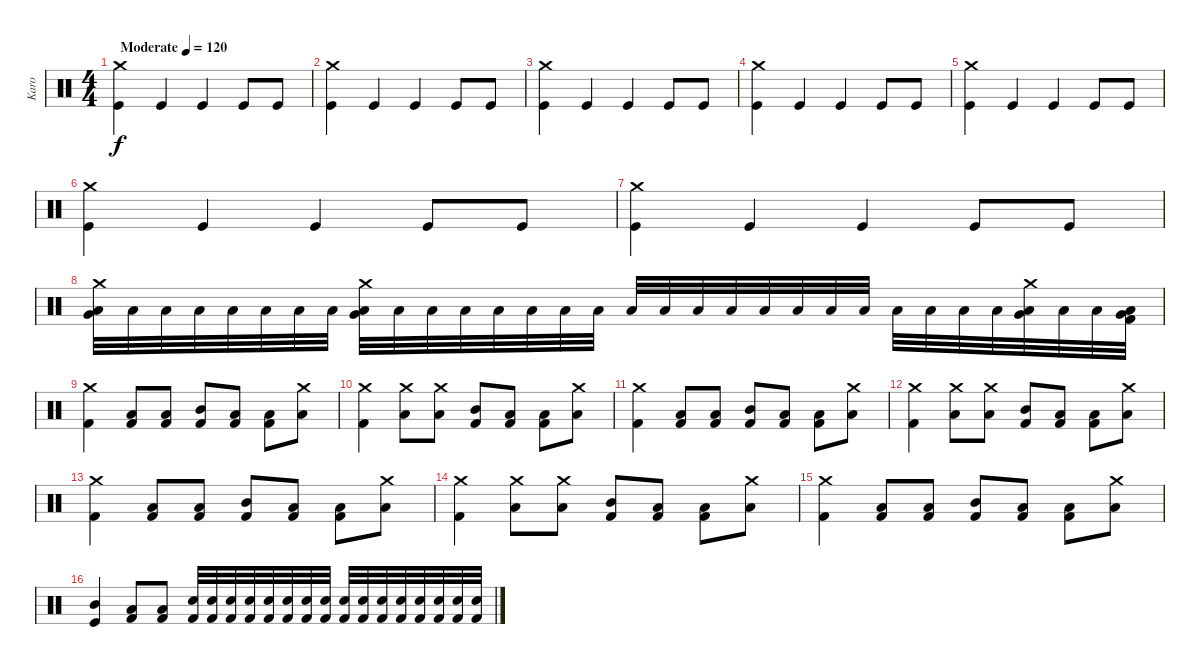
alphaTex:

\track ("Karo" "Karo") {instrument percussion}
\staff {score}
\articulation defaults
\ts (4 4)
\tempo (120 "Moderate")
\clef neutral
\ks c
("Crash medium (hit)" "Kick (hit)").4{dy f} "Kick (hit)".4 "Kick (hit)".4 "Kick (hit)".8 "Kick (hit)".8 |
("Crash medium (hit)" "Kick (hit)").4 "Kick (hit)".4 "Kick (hit)".4 "Kick (hit)".8 "Kick (hit)".8 |
("Crash medium (hit)" "Kick (hit)").4 "Kick (hit)".4 "Kick (hit)".4 "Kick (hit)".8 "Kick (hit)".8 |
("Crash medium (hit)" "Kick (hit)").4 "Kick (hit)".4 "Kick (hit)".4 "Kick (hit)".8 "Kick (hit)".8 |
("Crash medium (hit)" "Kick (hit)").4 "Kick (hit)".4 "Kick (hit)".4 "Kick (hit)".8 "Kick (hit)".8 |
("Crash medium (hit)" "Kick (hit)").4 "Kick (hit)".4 "Kick (hit)".4 "Kick (hit)".8 "Kick (hit)".8 |
("Crash medium (hit)" "Kick (hit)").4 "Kick (hit)".4 "Kick (hit)".4 "Kick (hit)".8 "Kick (hit)".8 |
("Crash medium (hit)" "Very Low Tom (hit)" "Low Tom (hit)").32 "Low Tom (hit)".32 "Low Tom (hit)".32 "Low Tom (hit)".32 "Low Tom (hit)".32 "Low Tom (hit)".32 "Low Tom (hit)".32 "Low Tom (hit)".32 ("Crash medium (hit)" "Very Low Tom (hit)" "Low Tom (hit)").32 "Low Tom (hit)".32 "Low Tom (hit)".32 "Low Tom (hit)".32 "Low Tom (hit)".32 "Low Tom (hit)".32 "Low Tom (hit)".32 "Low Tom (hit)".32 "Low Tom (hit)".32 "Low Tom (hit)".32 "Low Tom (hit)".32 "Low Tom (hit)".32 "Low Tom (hit)".32 "Low Tom (hit)".32 "Low Tom (hit)".32 "Low Tom (hit)".32 "Low Tom (hit)".32 "Low Tom (hit)".32 "Low Tom (hit)".32 "Low Tom (hit)".32 ("Very Low Tom (hit)" "Crash medium (hit)" "Low Tom (hit)").32 "Low Tom (hit)".32 "Low Tom (hit)".32 ("Very Low Tom (hit)" "Kick (hit) 2" "Low Tom (hit)").32 |
("Crash medium (hit)" "Kick (hit) 2").4 ("Kick (hit) 2" "Low Tom (hit)").8 ("Kick (hit) 2" "Low Tom (hit)").8 ("Kick (hit) 2" "Mid Tom (hit)").8 ("Kick (hit) 2" "Low Tom (hit)").8 ("Kick (hit) 2" "Low Tom (hit)").8 ("Crash medium (hit)" "Low Tom (hit)").8 |
("Crash medium (hit)" "Kick (hit) 2").4 ("Crash medium (hit)" "Low Tom (hit)").8 ("Crash medium (hit)" "Low Tom (hit)").8 ("Kick (hit) 2" "Mid Tom (hit)").8 ("Kick (hit) 2" "Low Tom (hit)").8 ("Kick (hit) 2" "Low Tom (hit)").8 ("Crash medium (hit)" "Low Tom (hit)").8 |
("Crash medium (hit)" "Kick (hit) 2").4 ("Kick (hit) 2" "Low Tom (hit)").8 ("Kick (hit) 2" "Low Tom (hit)").8 ("Kick (hit) 2" "Mid Tom (hit)").8 ("Kick (hit) 2" "Low Tom (hit)").8 ("Kick (hit) 2" "Low Tom (hit)").8 ("Crash medium (hit)" "Low Tom (hit)").8 |
("Crash medium (hit)" "Kick (hit) 2").4 ("Crash medium (hit)" "Low Tom (hit)").8 ("Crash medium (hit)" "Low Tom (hit)").8 ("Kick (hit) 2" "Mid Tom (hit)").8 ("Kick (hit) 2" "Low Tom (hit)").8 ("Kick (hit) 2" "Low Tom (hit)").8 ("Crash medium (hit)" "Low Tom (hit)").8 |
("Crash medium (hit)" "Kick (hit) 2").4 ("Kick (hit) 2" "Low Tom (hit)").8 ("Kick (hit) 2" "Low Tom (hit)").8 ("Kick (hit) 2" "Mid Tom (hit)").8 ("Kick (hit) 2" "Low Tom (hit)").8 ("Kick (hit) 2" "Low Tom (hit)").8 ("Crash medium (hit)" "Low Tom (hit)").8 |
("Crash medium (hit)" "Kick (hit) 2").4 ("Crash medium (hit)" "Low Tom (hit)").8 ("Crash medium (hit)" "Low Tom (hit)").8 ("Kick (hit) 2" "Mid Tom (hit)").8 ("Kick (hit) 2" "Low Tom (hit)").8 ("Kick (hit) 2" "Low Tom (hit)").8 ("Crash medium (hit)" "Low Tom (hit)").8 |
("Crash medium (hit)" "Kick (hit) 2").4 ("Kick (hit) 2" "Low Tom (hit)").8 ("Kick (hit) 2" "Low Tom (hit)").8 ("Kick (hit) 2" "Mid Tom (hit)").8 ("Kick (hit) 2" "Low Tom (hit)").8 ("Kick (hit) 2" "Low Tom (hit)").8 ("Crash medium (hit)" "Low Tom (hit)").8 |
("Kick (hit)" "Mid Tom (hit)").4 ("Low Tom (hit)" "Kick (hit) 2").8 ("Low Tom (hit)" "Kick (hit) 2").8 ("Kick (hit) 2" "Electric Snare (hit)").32 ("Kick (hit) 2" "Electric Snare (hit)").32 ("Kick (hit) 2" "Electric Snare (hit)").32 ("Kick (hit) 2" "Electric Snare (hit)").32 ("Kick (hit) 2" "Electric Snare (hit)").32 ("Kick (hit) 2" "Electric Snare (hit)").32 ("Kick (hit) 2" "Electric Snare (hit)").32 ("Kick (hit) 2" "Electric Snare (hit)").32 ("Kick (hit) 2" "Electric Snare (hit)").32 ("Kick (hit) 2" "Electric Snare (hit)").32 ("Kick (hit) 2" "Electric Snare (hit)").32 ("Kick (hit) 2" "Electric Snare (hit)").32 ("Kick (hit) 2" "Electric Snare (hit)").32 ("Kick (hit) 2" "Electric Snare (hit)").32 ("Kick (hit) 2" "Electric Snare (hit)").32 ("Kick (hit) 2" "Electric Snare (hit)").32
